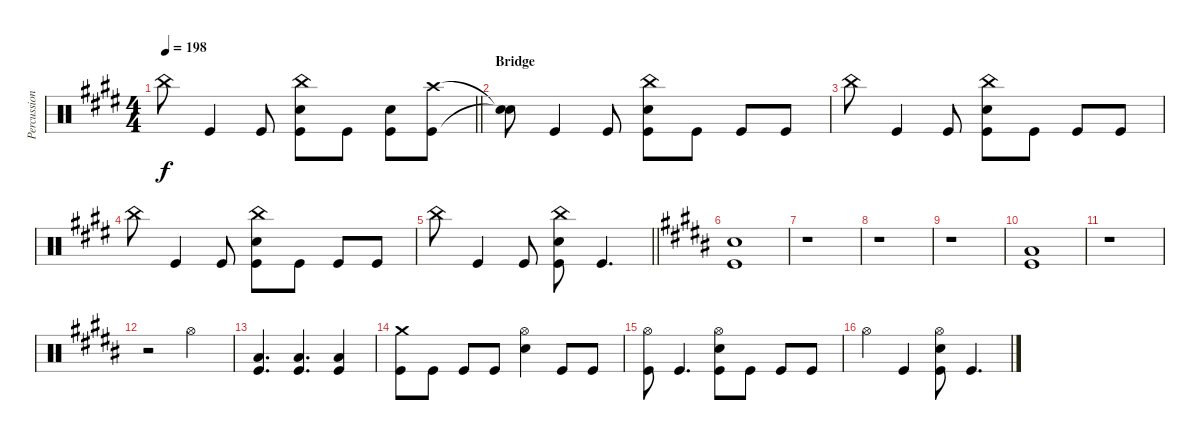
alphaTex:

\track ("Percussion" "Percussion") {instrument percussion}
\staff {score}
\articulation defaults
\ts (4 4)
\tempo 198
\clef neutral
\barLineRight lightlight
\ks e "China (hit)".8{dy f} "Kick (hit)".4 "Kick (hit)".8
("China (hit)" "Electric Snare (hit)" "Kick (hit)").8 "Kick (hit)".8 ("Electric Snare (hit)" "Kick (hit)").8 ("Crash high (hit)" "Kick (hit)").8 |
\section ("" "Bridge")
("Snare (hit)"{t} "Snare (hit)"{t}).8 "Kick (hit)".4 "Kick (hit)".8 ("China (hit)" "Electric Snare (hit)" "Kick (hit)").8 "Kick (hit)".8 "Kick (hit)".8 "Kick (hit)".8 |
"China (hit)".8 "Kick (hit)".4 "Kick (hit)".8 ("China (hit)" "Electric Snare (hit)" "Kick (hit)").8 "Kick (hit)".8 "Kick (hit)".8 "Kick (hit)".8 |
"China (hit)".8 "Kick (hit)".4 "Kick (hit)".8 ("China (hit)" "Electric Snare (hit)" "Kick (hit)").8 "Kick (hit)".8 "Kick (hit)".8 "Kick (hit)".8 |
\barLineRight lightlight "China (hit)".8 "Kick (hit)".4 "Kick (hit)".8
("China (hit)" "Electric Snare (hit)" "Kick (hit)").8 "Kick (hit)".4{d} |
\ks b
("Electric Snare (hit)" "Kick (hit)").1 |
r.1 |
r.1 |
r.1 |
("Low Floor Tom (hit)" "Kick (hit)").1 |
r.1 |
r.2 "Hi-Hat (open)".2 |
("Low Floor Tom (hit)" "Kick (hit)").4{d} ("Low Floor Tom (hit)" "Kick (hit)").4{d} ("Low Floor Tom (hit)" "Kick (hit)").4 |
("Crash medium (hit)" "Kick (hit)").8 "Kick (hit)".8 "Kick (hit)".8 "Kick (hit)".8 ("Hi-Hat (open)" "Electric Snare (hit)").4 "Kick (hit)".8 "Kick (hit)".8 |
("Hi-Hat (open)" "Kick (hit)").8 "Kick (hit)".4{d} ("Hi-Hat (open)" "Electric Snare (hit)" "Kick (hit)").8 "Kick (hit)".8 "Kick (hit)".8 "Kick (hit)".8 |
"Hi-Hat (open)".4 "Kick (hit)".4 ("Hi-Hat (open)" "Electric Snare (hit)" "Kick (hit)").8 "Kick (hit)".4{d}
